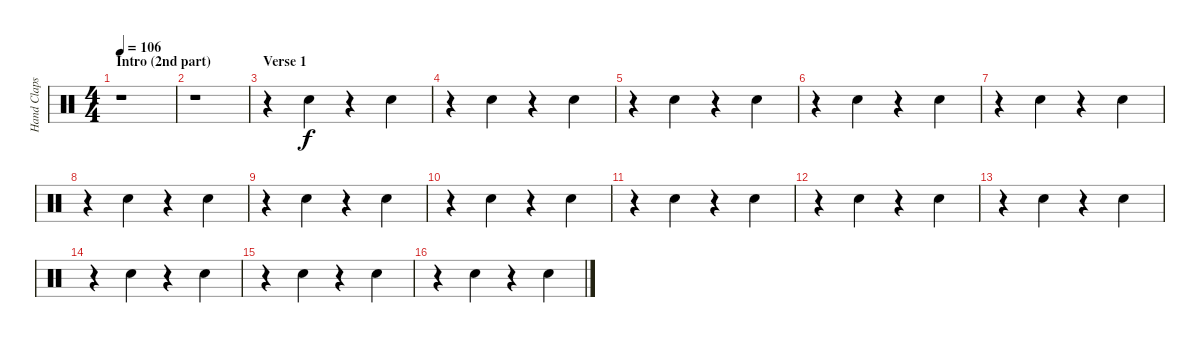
\track ("Hand Claps" "Hand Claps") {instrument percussion}
\staff {score}
\articulation defaults
\ts (4 4)
\section ("" "Intro (2nd part)")
\tempo 106
\clef neutral
\ks c
r.1{dy f} |
r.1 |
\section ("" "Verse 1")
r.4 "Hand Clap (hit)".4 r.4 "Hand Clap (hit)".4 |
r.4 "Hand Clap (hit)".4 r.4 "Hand Clap (hit)".4 |
r.4 "Hand Clap (hit)".4 r.4 "Hand Clap (hit)".4 |
r.4 "Hand Clap (hit)".4 r.4 "Hand Clap (hit)".4 |
r.4 "Hand Clap (hit)".4 r.4 "Hand Clap (hit)".4 |
r.4 "Hand Clap (hit)".4 r.4 "Hand Clap (hit)".4 |
r.4 "Hand Clap (hit)".4 r.4 "Hand Clap (hit)".4 |
r.4 "Hand Clap (hit)".4 r.4 "Hand Clap (hit)".4 |
r.4 "Hand Clap (hit)".4 r.4 "Hand Clap (hit)".4 |
r.4 "Hand Clap (hit)".4 r.4 "Hand Clap (hit)".4 |
r.4 "Hand Clap (hit)".4 r.4 "Hand Clap (hit)".4 |
r.4 "Hand Clap (hit)".4 r.4 "Hand Clap (hit)".4 |
r.4 "Hand Clap (hit)".4 r.4 "Hand Clap (hit)".4 |
r.4 "Hand Clap (hit)".4 r.4 "Hand Clap (hit)".4
